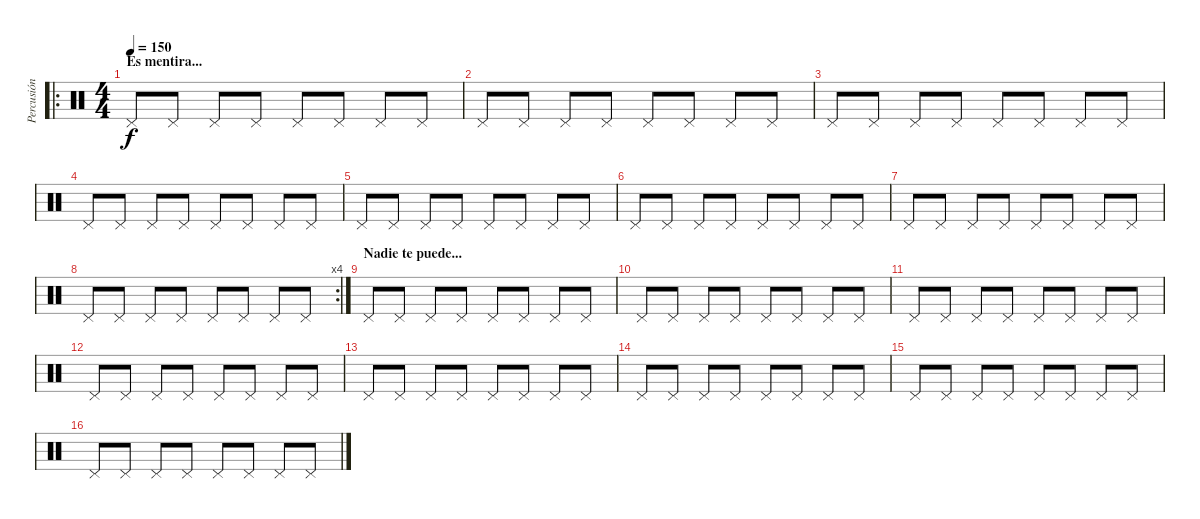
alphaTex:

\track ("Percusión" "Percusión") {instrument percussion}
\staff {score}
\articulation defaults
\ro
\ts (4 4)
\section ("" "Es mentira...")
\tempo 150
\clef neutral
\ks c "Pedal Hi-Hat (hit)".8{dy f} "Pedal Hi-Hat (hit)".8 "Pedal Hi-Hat (hit)".8 "Pedal Hi-Hat (hit)".8 "Pedal Hi-Hat (hit)".8 "Pedal Hi-Hat (hit)".8 "Pedal Hi-Hat (hit)".8 "Pedal Hi-Hat (hit)".8
|
"Pedal Hi-Hat (hit)".8 "Pedal Hi-Hat (hit)".8 "Pedal Hi-Hat (hit)".8 "Pedal Hi-Hat (hit)".8 "Pedal Hi-Hat (hit)".8 "Pedal Hi-Hat (hit)".8 "Pedal Hi-Hat (hit)".8 "Pedal Hi-Hat (hit)".8 |
"Pedal Hi-Hat (hit)".8 "Pedal Hi-Hat (hit)".8 "Pedal Hi-Hat (hit)".8 "Pedal Hi-Hat (hit)".8 "Pedal Hi-Hat (hit)".8 "Pedal Hi-Hat (hit)".8 "Pedal Hi-Hat (hit)".8 "Pedal Hi-Hat (hit)".8 |
"Pedal Hi-Hat (hit)".8 "Pedal Hi-Hat (hit)".8 "Pedal Hi-Hat (hit)".8 "Pedal Hi-Hat (hit)".8 "Pedal Hi-Hat (hit)".8 "Pedal Hi-Hat (hit)".8 "Pedal Hi-Hat (hit)".8 "Pedal Hi-Hat (hit)".8 |
"Pedal Hi-Hat (hit)".8 "Pedal Hi-Hat (hit)".8 "Pedal Hi-Hat (hit)".8 "Pedal Hi-Hat (hit)".8 "Pedal Hi-Hat (hit)".8 "Pedal Hi-Hat (hit)".8 "Pedal Hi-Hat (hit)".8 "Pedal Hi-Hat (hit)".8 |
"Pedal Hi-Hat (hit)".8 "Pedal Hi-Hat (hit)".8 "Pedal Hi-Hat (hit)".8 "Pedal Hi-Hat (hit)".8 "Pedal Hi-Hat (hit)".8 "Pedal Hi-Hat (hit)".8 "Pedal Hi-Hat (hit)".8 "Pedal Hi-Hat (hit)".8 |
"Pedal Hi-Hat (hit)".8 "Pedal Hi-Hat (hit)".8 "Pedal Hi-Hat (hit)".8 "Pedal Hi-Hat (hit)".8 "Pedal Hi-Hat (hit)".8 "Pedal Hi-Hat (hit)".8 "Pedal Hi-Hat (hit)".8 "Pedal Hi-Hat (hit)".8 |
\rc 4 "Pedal Hi-Hat (hit)".8 "Pedal Hi-Hat (hit)".8 "Pedal Hi-Hat (hit)".8 "Pedal Hi-Hat (hit)".8 "Pedal Hi-Hat (hit)".8 "Pedal Hi-Hat (hit)".8 "Pedal Hi-Hat (hit)".8 "Pedal Hi-Hat (hit)".8
|
\section ("" "Nadie te puede...")
"Pedal Hi-Hat (hit)".8 "Pedal Hi-Hat (hit)".8 "Pedal Hi-Hat (hit)".8 "Pedal Hi-Hat (hit)".8 "Pedal Hi-Hat (hit)".8 "Pedal Hi-Hat (hit)".8 "Pedal Hi-Hat (hit)".8 "Pedal Hi-Hat (hit)".8 |
"Pedal Hi-Hat (hit)".8 "Pedal Hi-Hat (hit)".8 "Pedal Hi-Hat (hit)".8 "Pedal Hi-Hat (hit)".8 "Pedal Hi-Hat (hit)".8 "Pedal Hi-Hat (hit)".8 "Pedal Hi-Hat (hit)".8 "Pedal Hi-Hat (hit)".8 |
"Pedal Hi-Hat (hit)".8 "Pedal Hi-Hat (hit)".8 "Pedal Hi-Hat (hit)".8 "Pedal Hi-Hat (hit)".8 "Pedal Hi-Hat (hit)".8 "Pedal Hi-Hat (hit)".8 "Pedal Hi-Hat (hit)".8 "Pedal Hi-Hat (hit)".8 |
"Pedal Hi-Hat (hit)".8 "Pedal Hi-Hat (hit)".8 "Pedal Hi-Hat (hit)".8 "Pedal Hi-Hat (hit)".8 "Pedal Hi-Hat (hit)".8 "Pedal Hi-Hat (hit)".8 "Pedal Hi-Hat (hit)".8 "Pedal Hi-Hat (hit)".8 |
"Pedal Hi-Hat (hit)".8 "Pedal Hi-Hat (hit)".8 "Pedal Hi-Hat (hit)".8 "Pedal Hi-Hat (hit)".8 "Pedal Hi-Hat (hit)".8 "Pedal Hi-Hat (hit)".8 "Pedal Hi-Hat (hit)".8 "Pedal Hi-Hat (hit)".8 |
"Pedal Hi-Hat (hit)".8 "Pedal Hi-Hat (hit)".8 "Pedal Hi-Hat (hit)".8 "Pedal Hi-Hat (hit)".8 "Pedal Hi-Hat (hit)".8 "Pedal Hi-Hat (hit)".8 "Pedal Hi-Hat (hit)".8 "Pedal Hi-Hat (hit)".8 |
"Pedal Hi-Hat (hit)".8 "Pedal Hi-Hat (hit)".8 "Pedal Hi-Hat (hit)".8 "Pedal Hi-Hat (hit)".8 "Pedal Hi-Hat (hit)".8 "Pedal Hi-Hat (hit)".8 "Pedal Hi-Hat (hit)".8 "Pedal Hi-Hat (hit)".8 |
"Pedal Hi-Hat (hit)".8 "Pedal Hi-Hat (hit)".8 "Pedal Hi-Hat (hit)".8 "Pedal Hi-Hat (hit)".8 "Pedal Hi-Hat (hit)".8 "Pedal Hi-Hat (hit)".8 "Pedal Hi-Hat (hit)".8 "Pedal Hi-Hat (hit)".8
